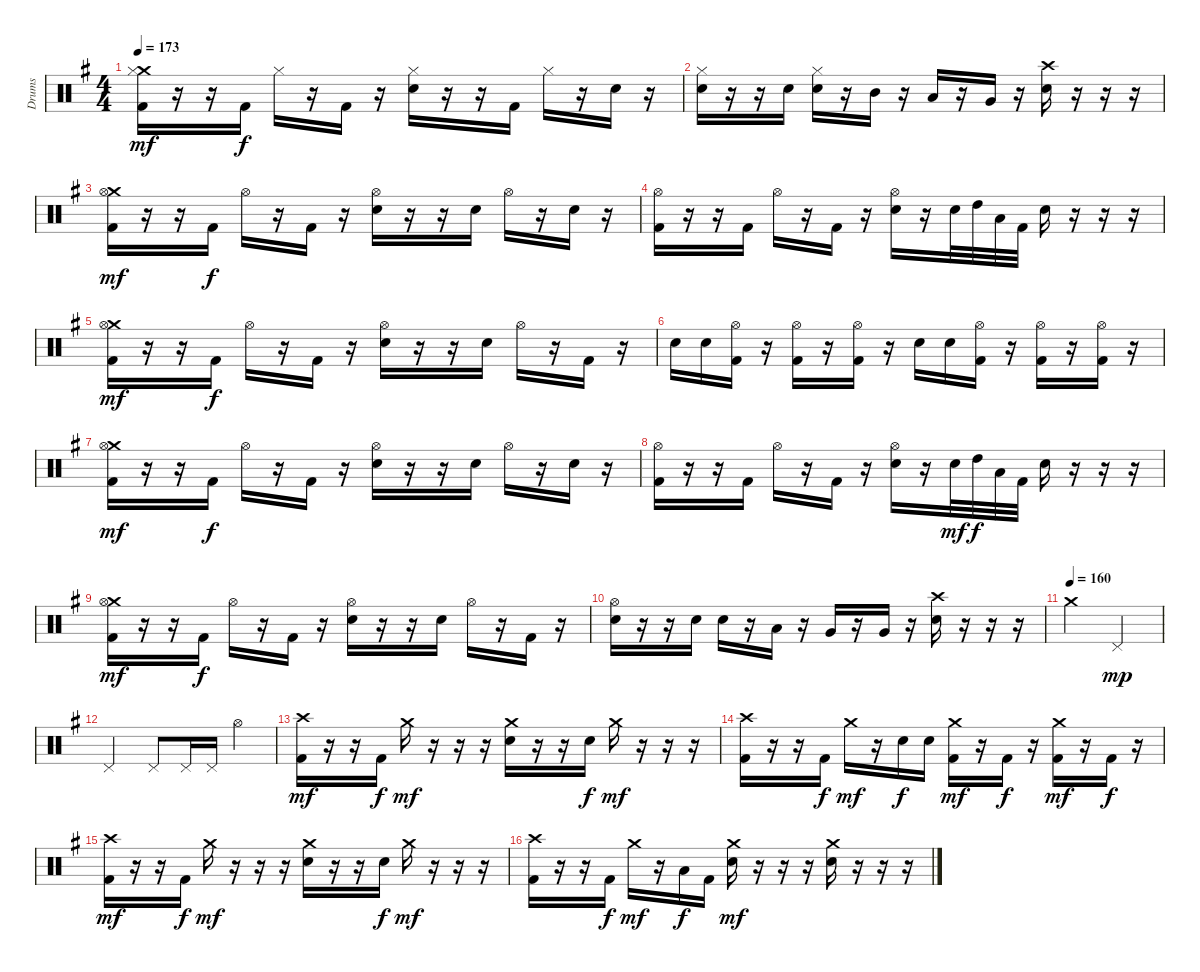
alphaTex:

\track ("Drums" "Drums") {instrument percussion}
\staff {score}
\articulation defaults
\ts (4 4)
\tempo 173
\clef neutral
\ks g
("Crash medium (hit)" "Hi-Hat (closed)" "Kick (hit) 2").16{dy mf} r.16 r.16 "Kick (hit) 2".16{dy f} "Hi-Hat (closed)".16 r.16 "Kick (hit) 2".16 r.16 ("Hi-Hat (closed)" "Snare (hit) 2").16 r.16 r.16 "Kick (hit) 2".16 "Hi-Hat (closed)".16 r.16 "Snare (hit) 2".16 r.16 |
("Hi-Hat (closed)" "Snare (hit) 2").16 r.16 r.16 "Snare (hit) 2".16 ("Hi-Hat (closed)" "Snare (hit) 2").16 r.16 "Mid Tom (hit)".16 r.16 "Low Tom (hit)".16 r.16 "Very Low Tom (hit)".16 r.16 ("Crash high (hit)" "Snare (hit) 2").16 r.16 r.16 r.16 |
("Crash medium (hit)" "Hi-Hat (open)" "Kick (hit) 2").16{dy mf} r.16 r.16 "Kick (hit) 2".16{dy f} "Hi-Hat (open)".16 r.16 "Kick (hit) 2".16 r.16 ("Hi-Hat (open)" "Snare (hit) 2").16 r.16 r.16 "Snare (hit) 2".16 "Hi-Hat (open)".16 r.16 "Snare (hit) 2".16 r.16 |
("Hi-Hat (open)" "Kick (hit) 2").16 r.16 r.16 "Kick (hit) 2".16 "Hi-Hat (open)".16 r.16 "Kick (hit) 2".16 r.16 ("Hi-Hat (open)" "Snare (hit) 2").16 r.16 "Snare (hit) 2".32 "High Tom (hit)".32 "Low Tom (hit)".32 "Kick (hit) 2".32 "Snare (hit) 2".16 r.16 r.16 r.16 |
("Crash medium (hit)" "Hi-Hat (open)" "Kick (hit) 2").16{dy mf} r.16 r.16 "Kick (hit) 2".16{dy f} "Hi-Hat (open)".16 r.16 "Kick (hit) 2".16 r.16 ("Hi-Hat (open)" "Snare (hit) 2").16 r.16 r.16 "Snare (hit) 2".16 "Hi-Hat (open)".16 r.16 "Kick (hit) 2".16 r.16 |
"Snare (hit) 2".16 "Snare (hit) 2".16 ("Hi-Hat (open)" "Kick (hit) 2").16 r.16 ("Hi-Hat (open)" "Kick (hit) 2").16 r.16 ("Hi-Hat (open)" "Kick (hit) 2").16 r.16 "Snare (hit) 2".16 "Snare (hit) 2".16 ("Hi-Hat (open)" "Kick (hit) 2").16 r.16 ("Hi-Hat (open)" "Kick (hit) 2").16 r.16 ("Hi-Hat (open)" "Kick (hit) 2").16 r.16 |
("Crash medium (hit)" "Hi-Hat (open)" "Kick (hit) 2").16{dy mf} r.16 r.16 "Kick (hit) 2".16{dy f} "Hi-Hat (open)".16 r.16 "Kick (hit) 2".16 r.16 ("Hi-Hat (open)" "Snare (hit) 2").16 r.16 r.16 "Snare (hit) 2".16 "Hi-Hat (open)".16 r.16 "Snare (hit) 2".16 r.16 |
("Hi-Hat (open)" "Kick (hit) 2").16 r.16 r.16 "Kick (hit) 2".16 "Hi-Hat (open)".16 r.16 "Kick (hit) 2".16 r.16 ("Hi-Hat (open)" "Snare (hit) 2").16 r.16 "Snare (hit) 2".32{dy mf} "High Tom (hit)".32{dy f} "Low Tom (hit)".32 "Kick (hit) 2".32 "Snare (hit) 2".16 r.16 r.16 r.16 |
("Crash medium (hit)" "Hi-Hat (open)" "Kick (hit) 2").16{dy mf} r.16 r.16 "Kick (hit) 2".16{dy f} "Hi-Hat (open)".16 r.16 "Kick (hit) 2".16 r.16 ("Hi-Hat (open)" "Snare (hit) 2").16 r.16 r.16 "Snare (hit) 2".16 "Hi-Hat (open)".16 r.16 "Kick (hit) 2".16 r.16 |
("Hi-Hat (open)" "Snare (hit) 2").16 r.16 r.16 "Snare (hit) 2".16 "Snare (hit) 2".16 r.16 "Low Tom (hit)".16 r.16 "Very Low Tom (hit)".16 r.16 "Very Low Tom (hit)".16 r.16 ("Crash high (hit)" "Snare (hit) 2").16 r.16 r.16 r.16 |
\tempo (160)
"Crash medium (hit)".2 "Pedal Hi-Hat (hit)".2{dy mp} |
"Pedal Hi-Hat (hit)".2 "Pedal Hi-Hat (hit)".8 "Pedal Hi-Hat (hit)".16 "Pedal Hi-Hat (hit)".16 "Hi-Hat (open)".4 |
("Crash high (hit)" "Kick (hit) 2").16{dy mf} r.16 r.16 "Kick (hit) 2".16{dy f} "Crash medium (hit)".16{dy mf} r.16 r.16 r.16 ("Crash medium (hit)" "Snare (hit) 2").16 r.16 r.16 "Snare (hit) 2".16{dy f} "Crash medium (hit)".16{dy mf} r.16 r.16 r.16 |
("Crash high (hit)" "Kick (hit) 2").16 r.16 r.16 "Kick (hit) 2".16{dy f} "Crash medium (hit)".16{dy mf} r.16 "Snare (hit) 2".16{dy f} "Snare (hit) 2".16 ("Crash medium (hit)" "Kick (hit) 2").16{dy mf} r.16 "Kick (hit) 2".16{dy f} r.16 ("Crash medium (hit)" "Kick (hit) 2").16{dy mf} r.16 "Kick (hit) 2".16{dy f} r.16 |
("Crash high (hit)" "Kick (hit) 2").16{dy mf} r.16 r.16 "Kick (hit) 2".16{dy f} "Crash medium (hit)".16{dy mf} r.16 r.16 r.16 ("Crash medium (hit)" "Snare (hit) 2").16 r.16 r.16 "Snare (hit) 2".16{dy f} "Crash medium (hit)".16{dy mf} r.16 r.16 r.16 |
("Crash high (hit)" "Kick (hit) 2").16 r.16 r.16 "Kick (hit) 2".16{dy f} "Crash medium (hit)".16{dy mf} r.16 "Low Tom (hit)".16{dy f} "Kick (hit) 2".16 ("Crash medium (hit)" "Snare (hit) 2").16{dy mf} r.16 r.16 r.16 ("Crash medium (hit)" "Snare (hit) 2").16 r.16 r.16 r.16
